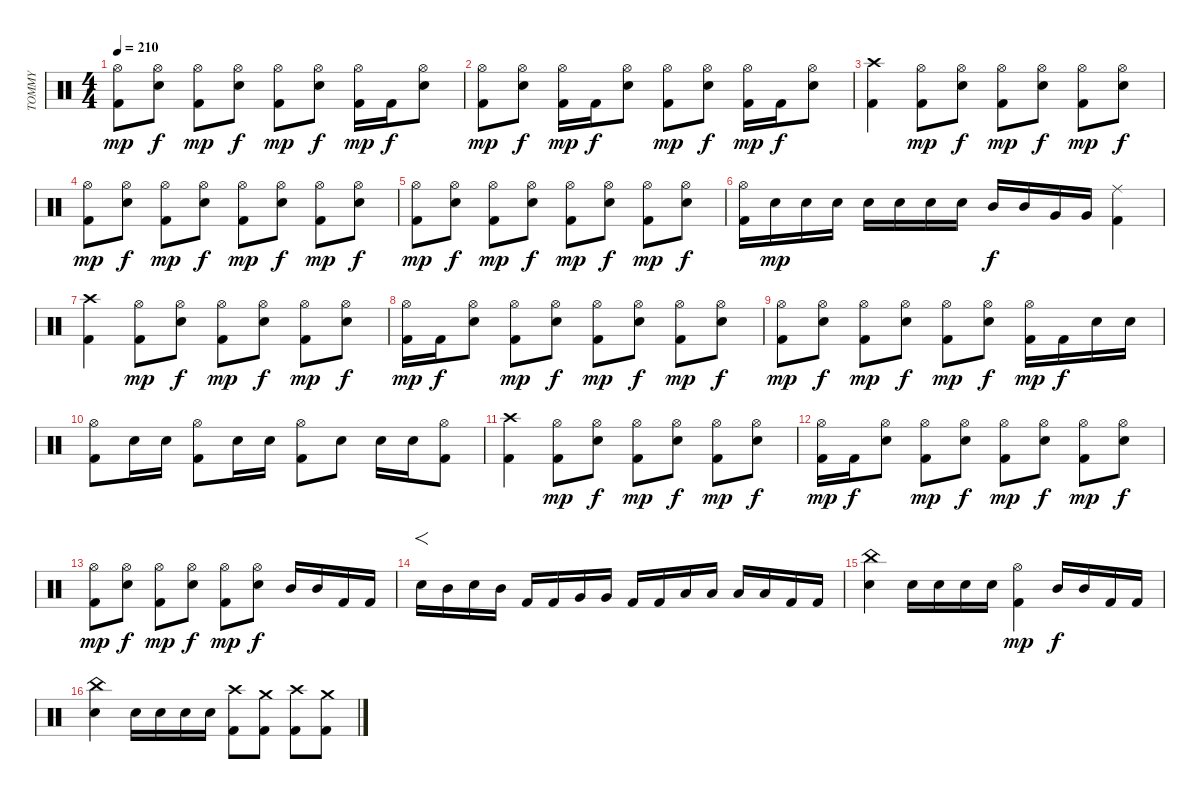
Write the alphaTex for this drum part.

\track ("TOMMY" "TOMMY") {instrument percussion}
\staff {score}
\articulation defaults
\ts (4 4)
\tempo 210
\clef neutral
\ks c
("Kick (hit) 2" "Hi-Hat (open)").8{dy mp} ("Snare (hit) 2" "Hi-Hat (open)").8{dy f} ("Kick (hit) 2" "Hi-Hat (open)").8{dy mp} ("Snare (hit) 2" "Hi-Hat (open)").8{dy f} ("Kick (hit) 2" "Hi-Hat (open)").8{dy mp} ("Snare (hit) 2" "Hi-Hat (open)").8{dy f} ("Kick (hit) 2" "Hi-Hat (open)").16{dy mp} "Kick (hit) 2".16{dy f} ("Snare (hit) 2" "Hi-Hat (open)").8 |
("Kick (hit) 2" "Hi-Hat (open)").8{dy mp} ("Snare (hit) 2" "Hi-Hat (open)").8{dy f} ("Kick (hit) 2" "Hi-Hat (open)").16{dy mp} "Kick (hit) 2".16{dy f} ("Snare (hit) 2" "Hi-Hat (open)").8 ("Kick (hit) 2" "Hi-Hat (open)").8{dy mp} ("Snare (hit) 2" "Hi-Hat (open)").8{dy f} ("Kick (hit) 2" "Hi-Hat (open)").16{dy mp} "Kick (hit) 2".16{dy f} ("Snare (hit) 2" "Hi-Hat (open)").8 |
("Kick (hit) 2" "Crash high (hit)").4 ("Kick (hit) 2" "Hi-Hat (open)").8{dy mp} ("Snare (hit) 2" "Hi-Hat (open)").8{dy f} ("Kick (hit) 2" "Hi-Hat (open)").8{dy mp} ("Snare (hit) 2" "Hi-Hat (open)").8{dy f} ("Kick (hit) 2" "Hi-Hat (open)").8{dy mp} ("Snare (hit) 2" "Hi-Hat (open)").8{dy f} |
("Kick (hit) 2" "Hi-Hat (open)").8{dy mp} ("Snare (hit) 2" "Hi-Hat (open)").8{dy f} ("Kick (hit) 2" "Hi-Hat (open)").8{dy mp} ("Snare (hit) 2" "Hi-Hat (open)").8{dy f} ("Kick (hit) 2" "Hi-Hat (open)").8{dy mp} ("Snare (hit) 2" "Hi-Hat (open)").8{dy f} ("Kick (hit) 2" "Hi-Hat (open)").8{dy mp} ("Snare (hit) 2" "Hi-Hat (open)").8{dy f} |
("Kick (hit) 2" "Hi-Hat (open)").8{dy mp} ("Snare (hit) 2" "Hi-Hat (open)").8{dy f} ("Kick (hit) 2" "Hi-Hat (open)").8{dy mp} ("Snare (hit) 2" "Hi-Hat (open)").8{dy f} ("Kick (hit) 2" "Hi-Hat (open)").8{dy mp} ("Snare (hit) 2" "Hi-Hat (open)").8{dy f} ("Kick (hit) 2" "Hi-Hat (open)").8{dy mp} ("Snare (hit) 2" "Hi-Hat (open)").8{dy f} |
("Kick (hit) 2" "Hi-Hat (open)").16 "Snare (hit) 2".16{dy mp} "Snare (hit) 2".16 "Snare (hit) 2".16 "Snare (hit) 2".16 "Snare (hit) 2".16 "Snare (hit) 2".16 "Snare (hit) 2".16 "Mid Tom (hit)".16{dy f} "Mid Tom (hit)".16 "Very Low Tom (hit)".16 "Very Low Tom (hit)".16 ("Kick (hit) 2" "Ride (middle)").4 |
("Kick (hit) 2" "Crash high (hit)").4 ("Kick (hit) 2" "Hi-Hat (open)").8{dy mp} ("Snare (hit) 2" "Hi-Hat (open)").8{dy f} ("Kick (hit) 2" "Hi-Hat (open)").8{dy mp} ("Snare (hit) 2" "Hi-Hat (open)").8{dy f} ("Kick (hit) 2" "Hi-Hat (open)").8{dy mp} ("Snare (hit) 2" "Hi-Hat (open)").8{dy f} |
("Kick (hit) 2" "Hi-Hat (open)").16{dy mp} "Kick (hit) 2".16{dy f} ("Snare (hit) 2" "Hi-Hat (open)").8 ("Kick (hit) 2" "Hi-Hat (open)").8{dy mp} ("Snare (hit) 2" "Hi-Hat (open)").8{dy f} ("Kick (hit) 2" "Hi-Hat (open)").8{dy mp} ("Snare (hit) 2" "Hi-Hat (open)").8{dy f} ("Kick (hit) 2" "Hi-Hat (open)").8{dy mp} ("Snare (hit) 2" "Hi-Hat (open)").8{dy f} |
("Kick (hit) 2" "Hi-Hat (open)").8{dy mp} ("Snare (hit) 2" "Hi-Hat (open)").8{dy f} ("Kick (hit) 2" "Hi-Hat (open)").8{dy mp} ("Snare (hit) 2" "Hi-Hat (open)").8{dy f} ("Kick (hit) 2" "Hi-Hat (open)").8{dy mp} ("Snare (hit) 2" "Hi-Hat (open)").8{dy f} ("Kick (hit) 2" "Hi-Hat (open)").16{dy mp} "Kick (hit) 2".16{dy f} "Snare (hit) 2".16 "Snare (hit) 2".16 |
("Kick (hit) 2" "Hi-Hat (open)").8 "Snare (hit) 2".16 "Snare (hit) 2".16 ("Kick (hit) 2" "Hi-Hat (open)").8 "Snare (hit) 2".16 "Snare (hit) 2".16 ("Kick (hit) 2" "Hi-Hat (open)").8 "Snare (hit) 2".8 "Snare (hit) 2".16 "Snare (hit) 2".16 ("Kick (hit) 2" "Hi-Hat (open)").8 |
("Kick (hit) 2" "Crash high (hit)").4 ("Kick (hit) 2" "Hi-Hat (open)").8{dy mp} ("Snare (hit) 2" "Hi-Hat (open)").8{dy f} ("Kick (hit) 2" "Hi-Hat (open)").8{dy mp} ("Snare (hit) 2" "Hi-Hat (open)").8{dy f} ("Kick (hit) 2" "Hi-Hat (open)").8{dy mp} ("Snare (hit) 2" "Hi-Hat (open)").8{dy f} |
("Kick (hit) 2" "Hi-Hat (open)").16{dy mp} "Kick (hit) 2".16{dy f} ("Snare (hit) 2" "Hi-Hat (open)").8 ("Kick (hit) 2" "Hi-Hat (open)").8{dy mp} ("Snare (hit) 2" "Hi-Hat (open)").8{dy f} ("Kick (hit) 2" "Hi-Hat (open)").8{dy mp} ("Snare (hit) 2" "Hi-Hat (open)").8{dy f} ("Kick (hit) 2" "Hi-Hat (open)").8{dy mp} ("Snare (hit) 2" "Hi-Hat (open)").8{dy f} |
("Kick (hit) 2" "Hi-Hat (open)").8{dy mp} ("Snare (hit) 2" "Hi-Hat (open)").8{dy f} ("Kick (hit) 2" "Hi-Hat (open)").8{dy mp} ("Snare (hit) 2" "Hi-Hat (open)").8{dy f} ("Kick (hit) 2" "Hi-Hat (open)").8{dy mp} ("Snare (hit) 2" "Hi-Hat (open)").8{dy f} "Mid Tom (hit)".16 "Mid Tom (hit)".16 "Kick (hit) 2".16 "Kick (hit) 2".16 |
"Snare (hit) 2".16{f} "Mid Tom (hit)".16 "Snare (hit) 2".16 "Mid Tom (hit)".16 "Kick (hit) 2".16 "Kick (hit) 2".16 "Very Low Tom (hit)".16 "Very Low Tom (hit)".16 "Kick (hit) 2".16 "Kick (hit) 2".16 "Low Floor Tom (hit)".16 "Low Floor Tom (hit)".16 "Low Floor Tom (hit)".16 "Low Floor Tom (hit)".16 "Kick (hit) 2".16 "Kick (hit) 2".16 |
("Snare (hit) 2" "China (hit)").4 "Snare (hit) 2".16 "Snare (hit) 2".16 "Snare (hit) 2".16 "Snare (hit) 2".16 ("Kick (hit) 2" "Hi-Hat (open)").4{dy mp} "Mid Tom (hit)".16{dy f} "Mid Tom (hit)".16 "Kick (hit) 2".16 "Kick (hit) 2".16 |
("Snare (hit) 2" "China (hit)").4 "Snare (hit) 2".16 "Snare (hit) 2".16 "Snare (hit) 2".16 "Snare (hit) 2".16 ("Kick (hit) 2" "Crash high (hit)").8 ("Kick (hit) 2" "Crash medium (hit)").8 ("Kick (hit) 2" "Crash high (hit)").8 ("Kick (hit) 2" "Crash medium (hit)").8
